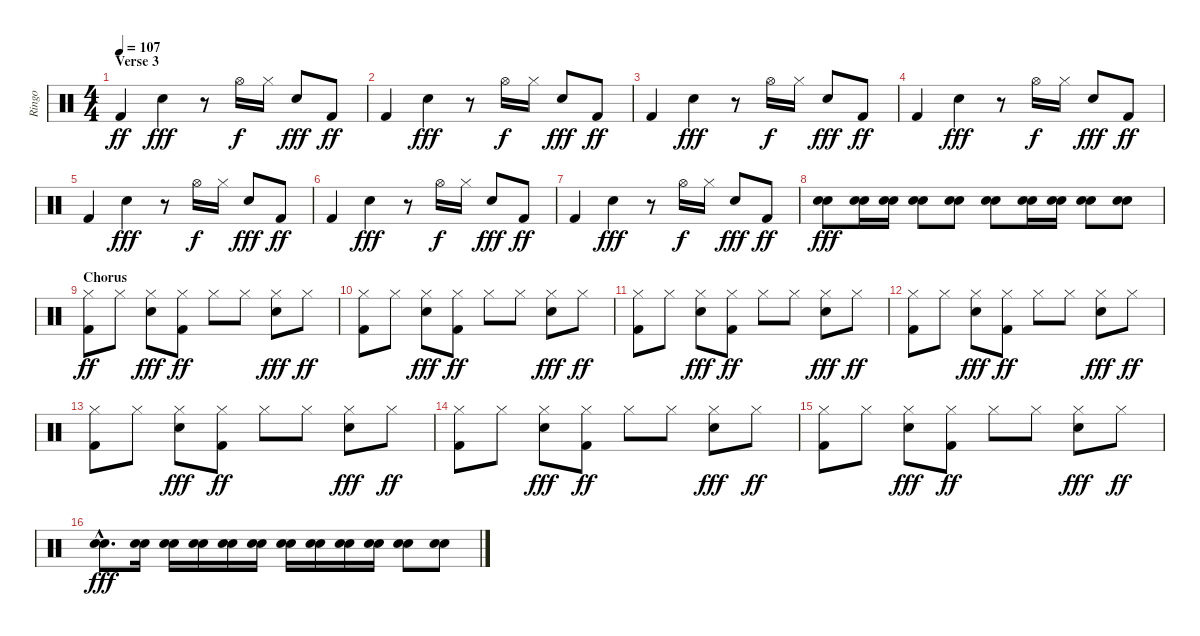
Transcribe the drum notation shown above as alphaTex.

\track ("Ringo" "Ringo") {instrument percussion}
\staff {score}
\articulation defaults
\ts (4 4)
\section ("" "Verse 3")
\tempo 107
\clef neutral
\ks c "Kick (hit) 2".4{dy ff} "Snare (hit) 2".4{dy fff}
r.8 "Hi-Hat (open)".16{dy f} "Hi-Hat (closed)".16 "Snare (hit) 2".8{dy fff} "Kick (hit) 2".8{dy ff} |
"Kick (hit) 2".4 "Snare (hit) 2".4{dy fff} r.8 "Hi-Hat (open)".16{dy f} "Hi-Hat (closed)".16 "Snare (hit) 2".8{dy fff} "Kick (hit) 2".8{dy ff} |
"Kick (hit) 2".4 "Snare (hit) 2".4{dy fff} r.8 "Hi-Hat (open)".16{dy f} "Hi-Hat (closed)".16 "Snare (hit) 2".8{dy fff} "Kick (hit) 2".8{dy ff} |
"Kick (hit) 2".4 "Snare (hit) 2".4{dy fff} r.8 "Hi-Hat (open)".16{dy f} "Hi-Hat (closed)".16 "Snare (hit) 2".8{dy fff} "Kick (hit) 2".8{dy ff} |
"Kick (hit) 2".4 "Snare (hit) 2".4{dy fff} r.8 "Hi-Hat (open)".16{dy f} "Hi-Hat (closed)".16 "Snare (hit) 2".8{dy fff} "Kick (hit) 2".8{dy ff} |
"Kick (hit) 2".4 "Snare (hit) 2".4{dy fff} r.8 "Hi-Hat (open)".16{dy f} "Hi-Hat (closed)".16 "Snare (hit) 2".8{dy fff} "Kick (hit) 2".8{dy ff} |
"Kick (hit) 2".4 "Snare (hit) 2".4{dy fff} r.8 "Hi-Hat (open)".16{dy f} "Hi-Hat (closed)".16 "Snare (hit) 2".8{dy fff} "Kick (hit) 2".8{dy ff} |
("Electric Snare (hit)" "Snare (hit) 2").8{dy fff} ("Electric Snare (hit)" "Snare (hit) 2").16 ("Electric Snare (hit)" "Snare (hit) 2").16 ("Electric Snare (hit)" "Snare (hit) 2").8 ("Electric Snare (hit)" "Snare (hit) 2").8 ("Electric Snare (hit)" "Snare (hit) 2").8 ("Electric Snare (hit)" "Snare (hit) 2").16 ("Electric Snare (hit)" "Snare (hit) 2").16 ("Electric Snare (hit)" "Snare (hit) 2").8 ("Electric Snare (hit)" "Snare (hit) 2").8 |
\section ("" "Chorus")
("Hi-Hat (closed)" "Kick (hit) 2").8{dy ff} "Hi-Hat (closed)".8 ("Hi-Hat (closed)" "Snare (hit) 2").8{dy fff} ("Hi-Hat (closed)" "Kick (hit) 2").8{dy ff} "Hi-Hat (closed)".8 "Hi-Hat (closed)".8 ("Hi-Hat (closed)" "Snare (hit) 2").8{dy fff} "Hi-Hat (closed)".8{dy ff} |
("Hi-Hat (closed)" "Kick (hit) 2").8 "Hi-Hat (closed)".8 ("Hi-Hat (closed)" "Snare (hit) 2").8{dy fff} ("Hi-Hat (closed)" "Kick (hit) 2").8{dy ff} "Hi-Hat (closed)".8 "Hi-Hat (closed)".8 ("Hi-Hat (closed)" "Snare (hit) 2").8{dy fff} "Hi-Hat (closed)".8{dy ff} |
("Hi-Hat (closed)" "Kick (hit) 2").8 "Hi-Hat (closed)".8 ("Hi-Hat (closed)" "Snare (hit) 2").8{dy fff} ("Hi-Hat (closed)" "Kick (hit) 2").8{dy ff} "Hi-Hat (closed)".8 "Hi-Hat (closed)".8 ("Hi-Hat (closed)" "Snare (hit) 2").8{dy fff} "Hi-Hat (closed)".8{dy ff} |
("Hi-Hat (closed)" "Kick (hit) 2").8 "Hi-Hat (closed)".8 ("Hi-Hat (closed)" "Snare (hit) 2").8{dy fff} ("Hi-Hat (closed)" "Kick (hit) 2").8{dy ff} "Hi-Hat (closed)".8 "Hi-Hat (closed)".8 ("Hi-Hat (closed)" "Snare (hit) 2").8{dy fff} "Hi-Hat (closed)".8{dy ff} |
("Hi-Hat (closed)" "Kick (hit) 2").8 "Hi-Hat (closed)".8 ("Hi-Hat (closed)" "Snare (hit) 2").8{dy fff} ("Hi-Hat (closed)" "Kick (hit) 2").8{dy ff} "Hi-Hat (closed)".8 "Hi-Hat (closed)".8 ("Hi-Hat (closed)" "Snare (hit) 2").8{dy fff} "Hi-Hat (closed)".8{dy ff} |
("Hi-Hat (closed)" "Kick (hit) 2").8 "Hi-Hat (closed)".8 ("Hi-Hat (closed)" "Snare (hit) 2").8{dy fff} ("Hi-Hat (closed)" "Kick (hit) 2").8{dy ff} "Hi-Hat (closed)".8 "Hi-Hat (closed)".8 ("Hi-Hat (closed)" "Snare (hit) 2").8{dy fff} "Hi-Hat (closed)".8{dy ff} |
("Hi-Hat (closed)" "Kick (hit) 2").8 "Hi-Hat (closed)".8 ("Hi-Hat (closed)" "Snare (hit) 2").8{dy fff} ("Hi-Hat (closed)" "Kick (hit) 2").8{dy ff} "Hi-Hat (closed)".8 "Hi-Hat (closed)".8 ("Hi-Hat (closed)" "Snare (hit) 2").8{dy fff} "Hi-Hat (closed)".8{dy ff} |
("Electric Snare (hit)"{hac} "Snare (hit) 2"{hac}).8{d dy fff} ("Electric Snare (hit)" "Snare (hit) 2").16 ("Electric Snare (hit)" "Snare (hit) 2").16 ("Electric Snare (hit)" "Snare (hit) 2").16 ("Electric Snare (hit)" "Snare (hit) 2").16 ("Electric Snare (hit)" "Snare (hit) 2").16 ("Electric Snare (hit)" "Snare (hit) 2").16 ("Electric Snare (hit)" "Snare (hit) 2").16 ("Electric Snare (hit)" "Snare (hit) 2").16 ("Electric Snare (hit)" "Snare (hit) 2").16 ("Electric Snare (hit)" "Snare (hit) 2").8 ("Electric Snare (hit)" "Snare (hit) 2").8
